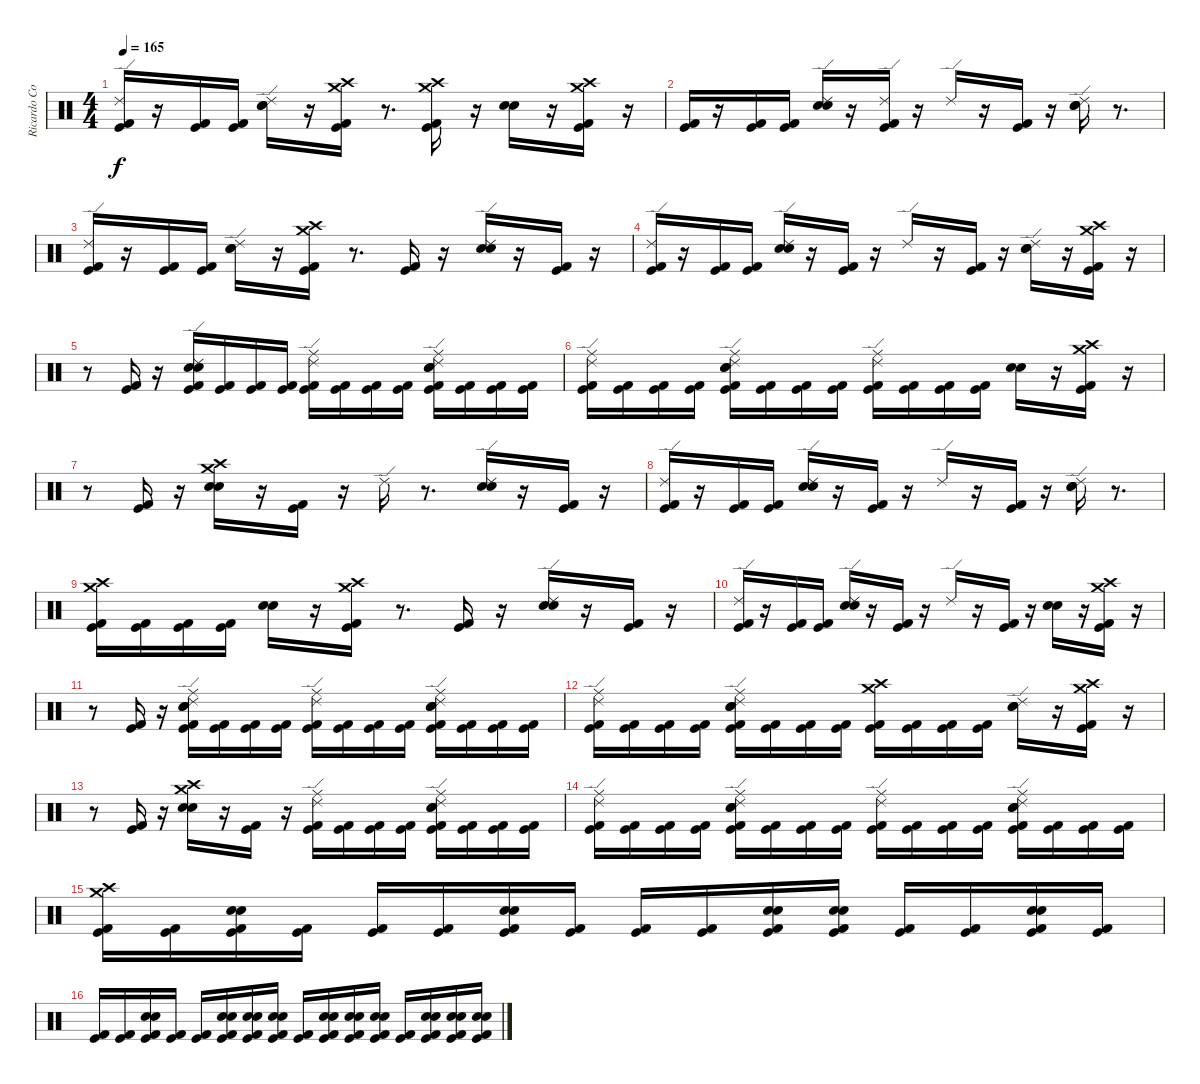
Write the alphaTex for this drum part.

\track ("Ricardo Confessori" "Ricardo Co") {instrument percussion}
\staff {score}
\articulation defaults
\ts (4 4)
\tempo 165
\clef neutral
\ks c
("Ride (edge) 2" "Kick (hit) 2" "Kick (hit)").16{dy f} r.16 ("Kick (hit) 2" "Kick (hit)").16 ("Kick (hit) 2" "Kick (hit)").16 ("Ride (edge) 2" "Electric Snare (hit)" "Snare (hit) 2").16 r.16 ("Crash high (hit)" "Crash medium (hit)" "Kick (hit) 2" "Kick (hit)").16 r.8{d} ("Crash high (hit)" "Crash medium (hit)" "Kick (hit) 2" "Kick (hit)").16 r.16 ("Electric Snare (hit)" "Snare (hit) 2").16 r.16 ("Crash high (hit)" "Crash medium (hit)" "Kick (hit) 2" "Kick (hit)").16 r.16 |
("Kick (hit) 2" "Kick (hit)").16 r.16 ("Kick (hit) 2" "Kick (hit)").16 ("Kick (hit) 2" "Kick (hit)").16 ("Ride (edge) 2" "Electric Snare (hit)" "Snare (hit) 2").16 r.16 ("Ride (edge) 2" "Kick (hit) 2" "Kick (hit)").16 r.16 "Ride (edge) 2".16 r.16 ("Kick (hit) 2" "Kick (hit)").16 r.16 ("Ride (edge) 2" "Electric Snare (hit)" "Snare (hit) 2").16 r.8{d} |
("Ride (edge) 2" "Kick (hit) 2" "Kick (hit)").16 r.16 ("Kick (hit) 2" "Kick (hit)").16 ("Kick (hit) 2" "Kick (hit)").16 ("Ride (edge) 2" "Electric Snare (hit)" "Snare (hit) 2").16 r.16 ("Crash high (hit)" "Crash medium (hit)" "Kick (hit) 2" "Kick (hit)").16 r.8{d} ("Kick (hit) 2" "Kick (hit)").16 r.16 ("Ride (edge) 2" "Electric Snare (hit)" "Snare (hit) 2").16 r.16 ("Kick (hit) 2" "Kick (hit)").16 r.16 |
("Ride (edge) 2" "Kick (hit) 2" "Kick (hit)").16 r.16 ("Kick (hit) 2" "Kick (hit)").16 ("Kick (hit) 2" "Kick (hit)").16 ("Ride (edge) 2" "Electric Snare (hit)" "Snare (hit) 2").16 r.16 ("Kick (hit) 2" "Kick (hit)").16 r.16 "Ride (edge) 2".16 r.16 ("Kick (hit) 2" "Kick (hit)").16 r.16 ("Ride (edge) 2" "Electric Snare (hit)" "Snare (hit) 2").16 r.16 ("Kick (hit) 2" "Kick (hit)" "Crash high (hit)" "Crash medium (hit)").16 r.16 |
r.8 ("Kick (hit) 2" "Kick (hit)").16 r.16 ("Ride (edge) 2" "Kick (hit) 2" "Kick (hit)" "Electric Snare (hit)" "Snare (hit) 2").16 ("Kick (hit) 2" "Kick (hit)").16 ("Kick (hit)" "Kick (hit) 2").16 ("Kick (hit) 2" "Kick (hit)").16 ("Ride (middle)" "Ride (edge) 2" "Kick (hit) 2" "Kick (hit)").16 ("Kick (hit) 2" "Kick (hit)").16 ("Kick (hit) 2" "Kick (hit)").16 ("Kick (hit) 2" "Kick (hit)").16 ("Ride (middle)" "Electric Snare (hit)" "Snare (hit) 2" "Ride (edge) 2" "Kick (hit) 2" "Kick (hit)").16 ("Kick (hit) 2" "Kick (hit)").16 ("Kick (hit) 2" "Kick (hit)").16 ("Kick (hit) 2" "Kick (hit)").16 |
("Ride (middle)" "Ride (edge) 2" "Kick (hit) 2" "Kick (hit)").16 ("Kick (hit) 2" "Kick (hit)").16 ("Kick (hit) 2" "Kick (hit)").16 ("Kick (hit) 2" "Kick (hit)").16 ("Ride (middle)" "Electric Snare (hit)" "Snare (hit) 2" "Ride (edge) 2" "Kick (hit) 2" "Kick (hit)").16 ("Kick (hit) 2" "Kick (hit)").16 ("Kick (hit) 2" "Kick (hit)").16 ("Kick (hit) 2" "Kick (hit)").16 ("Ride (middle)" "Ride (edge) 2" "Kick (hit) 2" "Kick (hit)").16 ("Kick (hit) 2" "Kick (hit)").16 ("Kick (hit) 2" "Kick (hit)").16 ("Kick (hit) 2" "Kick (hit)").16 ("Electric Snare (hit)" "Snare (hit) 2").16 r.16 ("Crash high (hit)" "Crash medium (hit)" "Kick (hit) 2" "Kick (hit)").16 r.16 |
r.8 ("Kick (hit) 2" "Kick (hit)").16 r.16 ("Crash high (hit)" "Crash medium (hit)" "Snare (hit) 2" "Electric Snare (hit)").16 r.16 ("Kick (hit) 2" "Kick (hit)").16 r.16 "Ride (edge) 2".16 r.8{d} ("Ride (edge) 2" "Electric Snare (hit)" "Snare (hit) 2").16 r.16 ("Kick (hit) 2" "Kick (hit)").16 r.16 |
("Ride (edge) 2" "Kick (hit) 2" "Kick (hit)").16 r.16 ("Kick (hit) 2" "Kick (hit)").16 ("Kick (hit) 2" "Kick (hit)").16 ("Ride (edge) 2" "Electric Snare (hit)" "Snare (hit) 2").16 r.16 ("Kick (hit) 2" "Kick (hit)").16 r.16 "Ride (edge) 2".16 r.16 ("Kick (hit) 2" "Kick (hit)").16 r.16 ("Ride (edge) 2" "Electric Snare (hit)" "Snare (hit) 2").16 r.8{d} |
("Crash high (hit)" "Crash medium (hit)" "Kick (hit) 2" "Kick (hit)").16 ("Kick (hit) 2" "Kick (hit)").16 ("Kick (hit) 2" "Kick (hit)").16 ("Kick (hit) 2" "Kick (hit)").16 ("Electric Snare (hit)" "Snare (hit) 2").16 r.16 ("Crash high (hit)" "Crash medium (hit)" "Kick (hit) 2" "Kick (hit)").16 r.8{d} ("Kick (hit) 2" "Kick (hit)").16 r.16 ("Ride (edge) 2" "Snare (hit) 2" "Electric Snare (hit)").16 r.16 ("Kick (hit) 2" "Kick (hit)").16 r.16 |
("Ride (edge) 2" "Kick (hit) 2" "Kick (hit)").16 r.16 ("Kick (hit) 2" "Kick (hit)").16 ("Kick (hit) 2" "Kick (hit)").16 ("Ride (edge) 2" "Electric Snare (hit)" "Snare (hit) 2").16 r.16 ("Kick (hit)" "Kick (hit) 2").16 r.16 "Ride (edge) 2".16 r.16 ("Kick (hit) 2" "Kick (hit)").16 r.16 ("Electric Snare (hit)" "Snare (hit) 2").16 r.16 ("Crash high (hit)" "Crash medium (hit)" "Kick (hit) 2" "Kick (hit)").16 r.16 |
r.8 ("Kick (hit) 2" "Kick (hit)").16 r.16 ("Ride (middle)" "Ride (edge) 2" "Snare (hit) 2" "Electric Snare (hit)" "Kick (hit) 2" "Kick (hit)").16 ("Kick (hit) 2" "Kick (hit)").16 ("Kick (hit) 2" "Kick (hit)").16 ("Kick (hit) 2" "Kick (hit)").16 ("Ride (middle)" "Ride (edge) 2" "Kick (hit) 2" "Kick (hit)").16 ("Kick (hit) 2" "Kick (hit)").16 ("Kick (hit) 2" "Kick (hit)").16 ("Kick (hit) 2" "Kick (hit)").16 ("Ride (middle)" "Electric Snare (hit)" "Snare (hit) 2" "Ride (edge) 2" "Kick (hit) 2" "Kick (hit)").16 ("Kick (hit) 2" "Kick (hit)").16 ("Kick (hit) 2" "Kick (hit)").16 ("Kick (hit) 2" "Kick (hit)").16 |
("Ride (middle)" "Ride (edge) 2" "Kick (hit) 2" "Kick (hit)").16 ("Kick (hit) 2" "Kick (hit)").16 ("Kick (hit) 2" "Kick (hit)").16 ("Kick (hit) 2" "Kick (hit)").16 ("Ride (middle)" "Electric Snare (hit)" "Snare (hit) 2" "Ride (edge) 2" "Kick (hit) 2" "Kick (hit)").16 ("Kick (hit) 2" "Kick (hit)").16 ("Kick (hit) 2" "Kick (hit)").16 ("Kick (hit) 2" "Kick (hit)").16 ("Crash medium (hit)" "Crash high (hit)" "Kick (hit) 2" "Kick (hit)").16 ("Kick (hit) 2" "Kick (hit)").16 ("Kick (hit) 2" "Kick (hit)").16 ("Kick (hit) 2" "Kick (hit)").16 ("Electric Snare (hit)" "Snare (hit) 2" "Ride (edge) 2").16 r.16 ("Crash high (hit)" "Crash medium (hit)" "Kick (hit) 2" "Kick (hit)").16 r.16 |
r.8 ("Kick (hit) 2" "Kick (hit)").16 r.16 ("Crash high (hit)" "Crash medium (hit)" "Snare (hit) 2" "Electric Snare (hit)").16 r.16 ("Kick (hit) 2" "Kick (hit)").16 r.16 ("Ride (middle)" "Ride (edge) 2" "Kick (hit) 2" "Kick (hit)").16 ("Kick (hit) 2" "Kick (hit)").16 ("Kick (hit) 2" "Kick (hit)").16 ("Kick (hit) 2" "Kick (hit)").16 ("Ride (middle)" "Electric Snare (hit)" "Snare (hit) 2" "Ride (edge) 2" "Kick (hit) 2" "Kick (hit)").16 ("Kick (hit) 2" "Kick (hit)").16 ("Kick (hit) 2" "Kick (hit)").16 ("Kick (hit) 2" "Kick (hit)").16 |
("Ride (middle)" "Ride (edge) 2" "Kick (hit) 2" "Kick (hit)").16 ("Kick (hit) 2" "Kick (hit)").16 ("Kick (hit) 2" "Kick (hit)").16 ("Kick (hit) 2" "Kick (hit)").16 ("Ride (middle)" "Electric Snare (hit)" "Snare (hit) 2" "Ride (edge) 2" "Kick (hit) 2" "Kick (hit)").16 ("Kick (hit) 2" "Kick (hit)").16 ("Kick (hit) 2" "Kick (hit)").16 ("Kick (hit) 2" "Kick (hit)").16 ("Ride (middle)" "Ride (edge) 2" "Kick (hit) 2" "Kick (hit)").16 ("Kick (hit) 2" "Kick (hit)").16 ("Kick (hit) 2" "Kick (hit)").16 ("Kick (hit) 2" "Kick (hit)").16 ("Ride (middle)" "Electric Snare (hit)" "Snare (hit) 2" "Ride (edge) 2" "Kick (hit) 2" "Kick (hit)").16 ("Kick (hit) 2" "Kick (hit)").16 ("Kick (hit) 2" "Kick (hit)").16 ("Kick (hit) 2" "Kick (hit)").16 |
("Crash medium (hit)" "Crash high (hit)" "Kick (hit) 2" "Kick (hit)").16 ("Kick (hit) 2" "Kick (hit)").16 ("Electric Snare (hit)" "Snare (hit) 2" "Kick (hit) 2" "Kick (hit)").16 ("Kick (hit) 2" "Kick (hit)").16 ("Kick (hit) 2" "Kick (hit)").16 ("Kick (hit) 2" "Kick (hit)").16 ("Electric Snare (hit)" "Snare (hit) 2" "Kick (hit) 2" "Kick (hit)").16 ("Kick (hit) 2" "Kick (hit)").16 ("Kick (hit) 2" "Kick (hit)").16 ("Kick (hit) 2" "Kick (hit)").16 ("Electric Snare (hit)" "Snare (hit) 2" "Kick (hit) 2" "Kick (hit)").16 ("Electric Snare (hit)" "Snare (hit) 2" "Kick (hit) 2" "Kick (hit)").16 ("Kick (hit) 2" "Kick (hit)").16 ("Kick (hit) 2" "Kick (hit)").16 ("Electric Snare (hit)" "Snare (hit) 2" "Kick (hit) 2" "Kick (hit)").16 ("Kick (hit) 2" "Kick (hit)").16 |
("Kick (hit) 2" "Kick (hit)").16 ("Kick (hit) 2" "Kick (hit)").16 ("Electric Snare (hit)" "Snare (hit) 2" "Kick (hit) 2" "Kick (hit)").16 ("Kick (hit) 2" "Kick (hit)").16 ("Kick (hit) 2" "Kick (hit)").16 ("Electric Snare (hit)" "Snare (hit) 2" "Kick (hit) 2" "Kick (hit)").16 ("Electric Snare (hit)" "Snare (hit) 2" "Kick (hit) 2" "Kick (hit)").16 ("Electric Snare (hit)" "Snare (hit) 2" "Kick (hit) 2" "Kick (hit)").16 ("Kick (hit) 2" "Kick (hit)").16 ("Snare (hit) 2" "Electric Snare (hit)" "Kick (hit) 2" "Kick (hit)").16 ("Electric Snare (hit)" "Snare (hit) 2" "Kick (hit) 2" "Kick (hit)").16 ("Electric Snare (hit)" "Snare (hit) 2" "Kick (hit) 2" "Kick (hit)").16 ("Kick (hit) 2" "Kick (hit)").16 ("Electric Snare (hit)" "Snare (hit) 2" "Kick (hit) 2" "Kick (hit)").16 ("Electric Snare (hit)" "Snare (hit) 2" "Kick (hit) 2" "Kick (hit)").16 ("Electric Snare (hit)" "Snare (hit) 2" "Kick (hit) 2" "Kick (hit)").16
